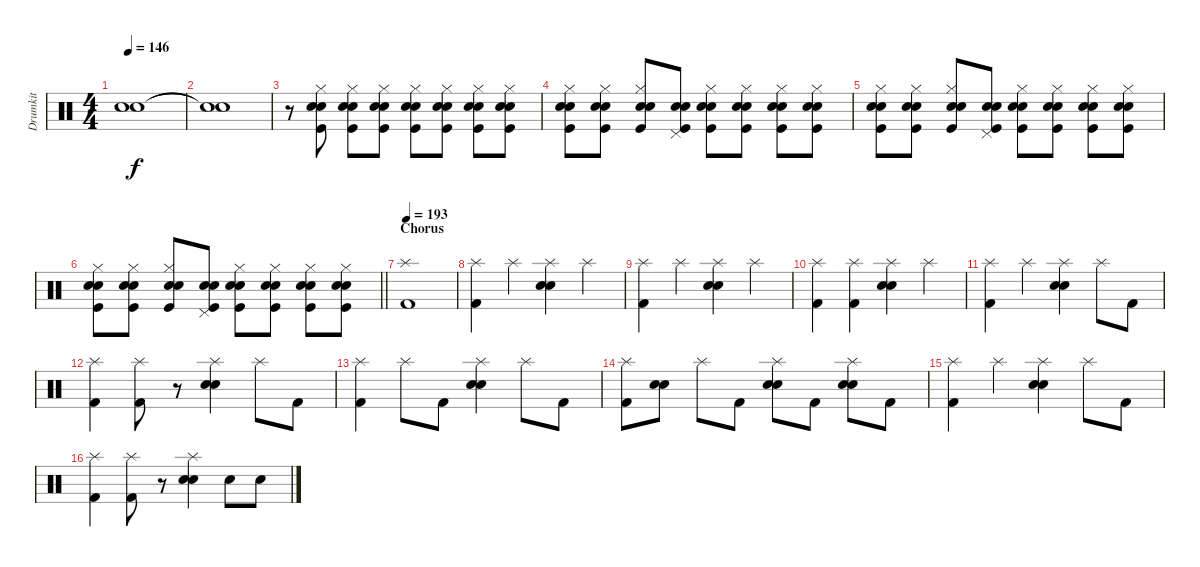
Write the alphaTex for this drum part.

\track ("Drumkit" "Drumkit") {instrument percussion}
\staff {score}
\articulation defaults
\ts (4 4)
\tempo 146
\clef neutral
\ks c
("Snare (hit)"{t} "Snare (hit)"{t}).1{dy f} |
("Snare (hit)"{t} "Snare (hit)"{t}).1 |
r.8{volume 0} ("Snare (hit) 2" "Kick (hit)" "Hi-Hat (closed)" "Electric Snare (hit)").8{volume 12} ("Snare (hit) 2" "Kick (hit)" "Hi-Hat (closed)" "Electric Snare (hit)").8 ("Snare (hit) 2" "Kick (hit)" "Hi-Hat (closed)" "Electric Snare (hit)").8 ("Snare (hit) 2" "Kick (hit)" "Hi-Hat (closed)" "Electric Snare (hit)").8 ("Snare (hit) 2" "Kick (hit)" "Hi-Hat (closed)" "Electric Snare (hit)").8 ("Snare (hit) 2" "Kick (hit)" "Hi-Hat (closed)" "Electric Snare (hit)").8 ("Snare (hit) 2" "Kick (hit)" "Hi-Hat (closed)" "Electric Snare (hit)").8 |
("Snare (hit) 2" "Kick (hit)" "Hi-Hat (closed)" "Electric Snare (hit)").8 ("Snare (hit) 2" "Kick (hit)" "Hi-Hat (closed)" "Electric Snare (hit)").8 ("Snare (hit) 2" "Kick (hit)" "Hi-Hat (closed)" "Electric Snare (hit)").8 ("Snare (hit) 2" "Kick (hit)" "Pedal Hi-Hat (hit)" "Electric Snare (hit)").8 ("Snare (hit) 2" "Kick (hit)" "Hi-Hat (closed)" "Electric Snare (hit)").8 ("Snare (hit) 2" "Kick (hit)" "Hi-Hat (closed)" "Electric Snare (hit)").8 ("Snare (hit) 2" "Kick (hit)" "Hi-Hat (closed)" "Electric Snare (hit)").8 ("Snare (hit) 2" "Kick (hit)" "Hi-Hat (closed)" "Electric Snare (hit)").8 |
("Snare (hit) 2" "Kick (hit)" "Hi-Hat (closed)" "Electric Snare (hit)").8 ("Snare (hit) 2" "Kick (hit)" "Hi-Hat (closed)" "Electric Snare (hit)").8 ("Snare (hit) 2" "Kick (hit)" "Hi-Hat (closed)" "Electric Snare (hit)").8 ("Snare (hit) 2" "Kick (hit)" "Pedal Hi-Hat (hit)" "Electric Snare (hit)").8 ("Snare (hit) 2" "Kick (hit)" "Hi-Hat (closed)" "Electric Snare (hit)").8 ("Snare (hit) 2" "Kick (hit)" "Hi-Hat (closed)" "Electric Snare (hit)").8 ("Snare (hit) 2" "Kick (hit)" "Hi-Hat (closed)" "Electric Snare (hit)").8 ("Snare (hit) 2" "Kick (hit)" "Hi-Hat (closed)" "Electric Snare (hit)").8 |
\barLineRight lightlight
("Snare (hit) 2" "Kick (hit)" "Hi-Hat (closed)" "Electric Snare (hit)").8 ("Snare (hit) 2" "Kick (hit)" "Hi-Hat (closed)" "Electric Snare (hit)").8 ("Snare (hit) 2" "Kick (hit)" "Hi-Hat (closed)" "Electric Snare (hit)").8 ("Snare (hit) 2" "Kick (hit)" "Pedal Hi-Hat (hit)" "Electric Snare (hit)").8 ("Snare (hit) 2" "Kick (hit)" "Hi-Hat (closed)" "Electric Snare (hit)").8 ("Snare (hit) 2" "Kick (hit)" "Hi-Hat (closed)" "Electric Snare (hit)").8 ("Snare (hit) 2" "Kick (hit)" "Hi-Hat (closed)" "Electric Snare (hit)").8 ("Snare (hit) 2" "Kick (hit)" "Hi-Hat (closed)" "Electric Snare (hit)").8 |
\section ("" "Chorus")
\tempo 193
("Kick (hit) 2" "Splash (hit)").1 |
("Kick (hit) 2" "Splash (hit)").4 "Splash (hit)".4 ("Splash (hit)" "Snare (hit) 2" "Electric Snare (hit)").4 "Splash (hit)".4 |
("Kick (hit) 2" "Splash (hit)").4 "Splash (hit)".4 ("Splash (hit)" "Snare (hit) 2" "Electric Snare (hit)").4 "Splash (hit)".4 |
("Kick (hit) 2" "Splash (hit)").4 ("Splash (hit)" "Kick (hit) 2").4 ("Splash (hit)" "Snare (hit) 2" "Electric Snare (hit)").4 "Splash (hit)".4 |
("Kick (hit) 2" "Splash (hit)").4 "Splash (hit)".4 ("Splash (hit)" "Snare (hit) 2" "Electric Snare (hit)").4 "Splash (hit)".8 "Kick (hit) 2".8 |
("Kick (hit) 2" "Splash (hit)").4 ("Splash (hit)" "Kick (hit) 2").8 r.8 ("Splash (hit)" "Snare (hit) 2" "Electric Snare (hit)").4 "Splash (hit)".8 "Kick (hit) 2".8 |
("Kick (hit) 2" "Splash (hit)").4 "Splash (hit)".8 "Kick (hit) 2".8 ("Splash (hit)" "Snare (hit) 2" "Electric Snare (hit)").4 "Splash (hit)".8 "Kick (hit) 2".8 |
("Kick (hit) 2" "Splash (hit)").8 ("Snare (hit) 2" "Electric Snare (hit)").8 "Splash (hit)".8 "Kick (hit) 2".8 ("Splash (hit)" "Snare (hit) 2" "Electric Snare (hit)").8 "Kick (hit) 2".8 ("Splash (hit)" "Electric Snare (hit)" "Snare (hit) 2").8 "Kick (hit) 2".8 |
("Kick (hit) 2" "Splash (hit)").4 "Splash (hit)".4 ("Splash (hit)" "Snare (hit) 2" "Electric Snare (hit)").4 "Splash (hit)".8 "Kick (hit) 2".8 |
("Kick (hit) 2" "Splash (hit)").4 ("Splash (hit)" "Kick (hit) 2").8 r.8 ("Splash (hit)" "Snare (hit) 2" "Electric Snare (hit)").4 "Electric Snare (hit)".8 "Electric Snare (hit)".8
